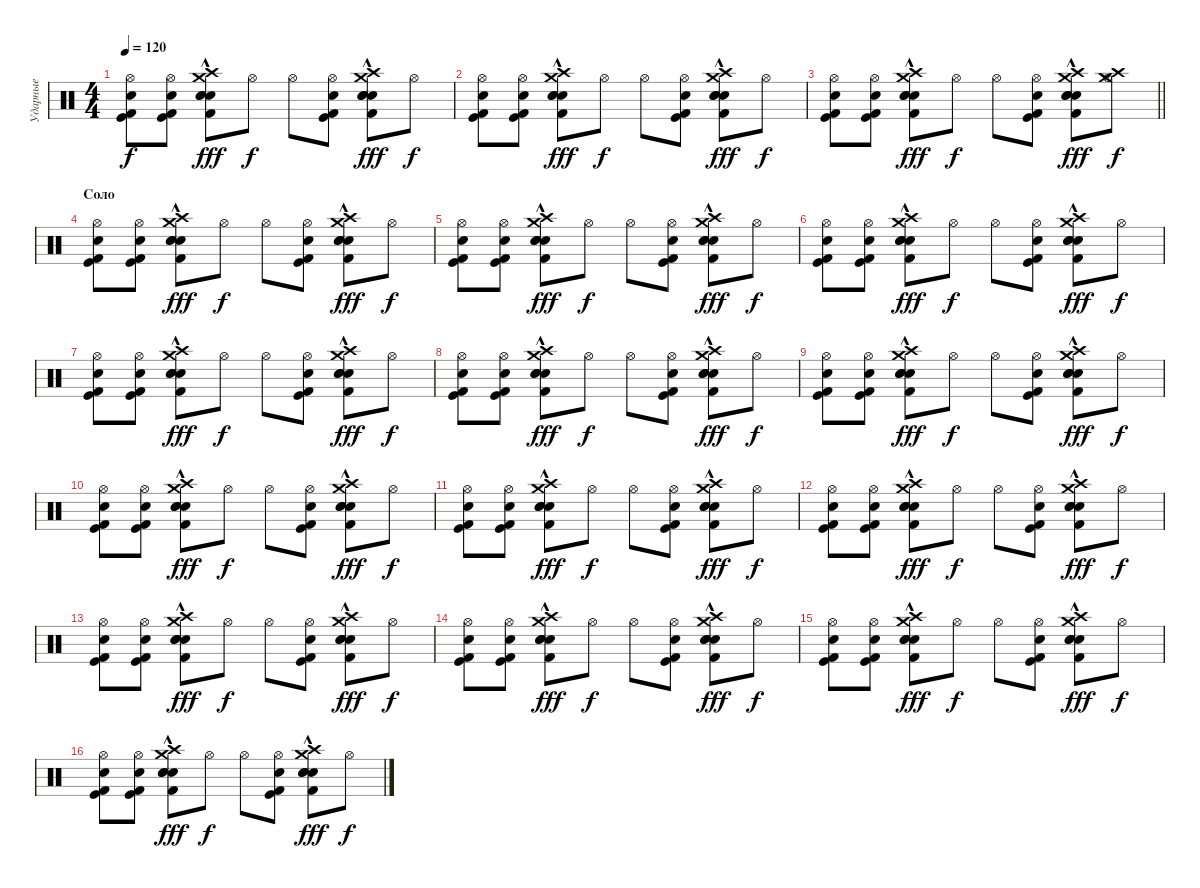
\track ("Ударные" "Ударные") {instrument percussion}
\staff {score}
\articulation defaults
\ts (4 4)
\tempo 120
\clef neutral
\ks c
("Hi-Hat (open)" "Electric Snare (hit)" "Kick (hit)" "Kick (hit) 2").8{dy f} ("Hi-Hat (open)" "Electric Snare (hit)" "Kick (hit)" "Kick (hit) 2").8 ("Snare (hit) 2" "Crash high (hit)"{hac} "Crash medium (hit)"{hac} "Snare (hit) 2"{hac} "Snare (hit) 2"{hac} "Kick (hit) 2").8{dy fff} "Hi-Hat (open)".8{dy f} "Hi-Hat (open)".8 ("Hi-Hat (open)" "Electric Snare (hit)" "Kick (hit)" "Kick (hit) 2").8 ("Snare (hit) 2" "Crash high (hit)"{hac} "Crash medium (hit)"{hac} "Snare (hit) 2"{hac} "Snare (hit) 2"{hac} "Kick (hit) 2").8{dy fff} "Hi-Hat (open)".8{dy f} |
("Hi-Hat (open)" "Electric Snare (hit)" "Kick (hit)" "Kick (hit) 2").8 ("Hi-Hat (open)" "Electric Snare (hit)" "Kick (hit)" "Kick (hit) 2").8 ("Snare (hit) 2" "Crash high (hit)"{hac} "Crash medium (hit)"{hac} "Snare (hit) 2"{hac} "Snare (hit) 2"{hac} "Kick (hit) 2").8{dy fff} "Hi-Hat (open)".8{dy f} "Hi-Hat (open)".8 ("Hi-Hat (open)" "Electric Snare (hit)" "Kick (hit)" "Kick (hit) 2").8 ("Snare (hit) 2" "Crash high (hit)"{hac} "Crash medium (hit)"{hac} "Snare (hit) 2"{hac} "Snare (hit) 2"{hac} "Kick (hit) 2").8{dy fff} "Hi-Hat (open)".8{dy f} |
\barLineRight lightlight
("Hi-Hat (open)" "Electric Snare (hit)" "Kick (hit)" "Kick (hit) 2").8 ("Hi-Hat (open)" "Electric Snare (hit)" "Kick (hit)" "Kick (hit) 2").8 ("Snare (hit) 2" "Crash high (hit)"{hac} "Crash medium (hit)"{hac} "Snare (hit) 2"{hac} "Snare (hit) 2"{hac} "Kick (hit) 2").8{dy fff} "Hi-Hat (open)".8{dy f} "Hi-Hat (open)".8 ("Hi-Hat (open)" "Electric Snare (hit)" "Kick (hit)" "Kick (hit) 2").8 ("Snare (hit) 2" "Crash high (hit)"{hac} "Crash medium (hit)"{hac} "Snare (hit) 2"{hac} "Snare (hit) 2"{hac} "Kick (hit) 2").8{dy fff} ("Hi-Hat (open)" "Crash high (hit)" "Crash medium (hit)").8{dy f} |
\section ("" "Соло")
("Hi-Hat (open)" "Electric Snare (hit)" "Kick (hit)" "Kick (hit) 2").8 ("Hi-Hat (open)" "Electric Snare (hit)" "Kick (hit)" "Kick (hit) 2").8 ("Snare (hit) 2" "Crash high (hit)"{hac} "Crash medium (hit)"{hac} "Snare (hit) 2"{hac} "Snare (hit) 2"{hac} "Kick (hit) 2").8{dy fff} "Hi-Hat (open)".8{dy f} "Hi-Hat (open)".8 ("Hi-Hat (open)" "Electric Snare (hit)" "Kick (hit)" "Kick (hit) 2").8 ("Snare (hit) 2" "Crash high (hit)"{hac} "Crash medium (hit)"{hac} "Snare (hit) 2"{hac} "Snare (hit) 2"{hac} "Kick (hit) 2").8{dy fff} "Hi-Hat (open)".8{dy f} |
("Hi-Hat (open)" "Electric Snare (hit)" "Kick (hit)" "Kick (hit) 2").8 ("Hi-Hat (open)" "Electric Snare (hit)" "Kick (hit)" "Kick (hit) 2").8 ("Snare (hit) 2" "Crash high (hit)"{hac} "Crash medium (hit)"{hac} "Snare (hit) 2"{hac} "Snare (hit) 2"{hac} "Kick (hit) 2").8{dy fff} "Hi-Hat (open)".8{dy f} "Hi-Hat (open)".8 ("Hi-Hat (open)" "Electric Snare (hit)" "Kick (hit)" "Kick (hit) 2").8 ("Snare (hit) 2" "Crash high (hit)"{hac} "Crash medium (hit)"{hac} "Snare (hit) 2"{hac} "Snare (hit) 2"{hac} "Kick (hit) 2").8{dy fff} "Hi-Hat (open)".8{dy f} |
("Hi-Hat (open)" "Electric Snare (hit)" "Kick (hit)" "Kick (hit) 2").8 ("Hi-Hat (open)" "Electric Snare (hit)" "Kick (hit)" "Kick (hit) 2").8 ("Snare (hit) 2" "Crash high (hit)"{hac} "Crash medium (hit)"{hac} "Snare (hit) 2"{hac} "Snare (hit) 2"{hac} "Kick (hit) 2").8{dy fff} "Hi-Hat (open)".8{dy f} "Hi-Hat (open)".8 ("Hi-Hat (open)" "Electric Snare (hit)" "Kick (hit)" "Kick (hit) 2").8 ("Snare (hit) 2" "Crash high (hit)"{hac} "Crash medium (hit)"{hac} "Snare (hit) 2"{hac} "Snare (hit) 2"{hac} "Kick (hit) 2").8{dy fff} "Hi-Hat (open)".8{dy f} |
("Hi-Hat (open)" "Electric Snare (hit)" "Kick (hit)" "Kick (hit) 2").8 ("Hi-Hat (open)" "Electric Snare (hit)" "Kick (hit)" "Kick (hit) 2").8 ("Snare (hit) 2" "Crash high (hit)"{hac} "Crash medium (hit)"{hac} "Snare (hit) 2"{hac} "Snare (hit) 2"{hac} "Kick (hit) 2").8{dy fff} "Hi-Hat (open)".8{dy f} "Hi-Hat (open)".8 ("Hi-Hat (open)" "Electric Snare (hit)" "Kick (hit)" "Kick (hit) 2").8 ("Snare (hit) 2" "Crash high (hit)"{hac} "Crash medium (hit)"{hac} "Snare (hit) 2"{hac} "Snare (hit) 2"{hac} "Kick (hit) 2").8{dy fff} "Hi-Hat (open)".8{dy f} |
("Hi-Hat (open)" "Electric Snare (hit)" "Kick (hit)" "Kick (hit) 2").8 ("Hi-Hat (open)" "Electric Snare (hit)" "Kick (hit)" "Kick (hit) 2").8 ("Snare (hit) 2" "Crash high (hit)"{hac} "Crash medium (hit)"{hac} "Snare (hit) 2"{hac} "Snare (hit) 2"{hac} "Kick (hit) 2").8{dy fff} "Hi-Hat (open)".8{dy f} "Hi-Hat (open)".8 ("Hi-Hat (open)" "Electric Snare (hit)" "Kick (hit)" "Kick (hit) 2").8 ("Snare (hit) 2" "Crash high (hit)"{hac} "Crash medium (hit)"{hac} "Snare (hit) 2"{hac} "Snare (hit) 2"{hac} "Kick (hit) 2").8{dy fff} "Hi-Hat (open)".8{dy f} |
("Hi-Hat (open)" "Electric Snare (hit)" "Kick (hit)" "Kick (hit) 2").8 ("Hi-Hat (open)" "Electric Snare (hit)" "Kick (hit)" "Kick (hit) 2").8 ("Snare (hit) 2" "Crash high (hit)"{hac} "Crash medium (hit)"{hac} "Snare (hit) 2"{hac} "Snare (hit) 2"{hac} "Kick (hit) 2").8{dy fff} "Hi-Hat (open)".8{dy f} "Hi-Hat (open)".8 ("Hi-Hat (open)" "Electric Snare (hit)" "Kick (hit)" "Kick (hit) 2").8 ("Snare (hit) 2" "Crash high (hit)"{hac} "Crash medium (hit)"{hac} "Snare (hit) 2"{hac} "Snare (hit) 2"{hac} "Kick (hit) 2").8{dy fff} "Hi-Hat (open)".8{dy f} |
("Hi-Hat (open)" "Electric Snare (hit)" "Kick (hit)" "Kick (hit) 2").8 ("Hi-Hat (open)" "Electric Snare (hit)" "Kick (hit)" "Kick (hit) 2").8 ("Snare (hit) 2" "Crash high (hit)"{hac} "Crash medium (hit)"{hac} "Snare (hit) 2"{hac} "Snare (hit) 2"{hac} "Kick (hit) 2").8{dy fff} "Hi-Hat (open)".8{dy f} "Hi-Hat (open)".8 ("Hi-Hat (open)" "Electric Snare (hit)" "Kick (hit)" "Kick (hit) 2").8 ("Snare (hit) 2" "Crash high (hit)"{hac} "Crash medium (hit)"{hac} "Snare (hit) 2"{hac} "Snare (hit) 2"{hac} "Kick (hit) 2").8{dy fff} "Hi-Hat (open)".8{dy f} |
("Hi-Hat (open)" "Electric Snare (hit)" "Kick (hit)" "Kick (hit) 2").8 ("Hi-Hat (open)" "Electric Snare (hit)" "Kick (hit)" "Kick (hit) 2").8 ("Snare (hit) 2" "Crash high (hit)"{hac} "Crash medium (hit)"{hac} "Snare (hit) 2"{hac} "Snare (hit) 2"{hac} "Kick (hit) 2").8{dy fff} "Hi-Hat (open)".8{dy f} "Hi-Hat (open)".8 ("Hi-Hat (open)" "Electric Snare (hit)" "Kick (hit)" "Kick (hit) 2").8 ("Snare (hit) 2" "Crash high (hit)"{hac} "Crash medium (hit)"{hac} "Snare (hit) 2"{hac} "Snare (hit) 2"{hac} "Kick (hit) 2").8{dy fff} "Hi-Hat (open)".8{dy f} |
("Hi-Hat (open)" "Electric Snare (hit)" "Kick (hit)" "Kick (hit) 2").8 ("Hi-Hat (open)" "Electric Snare (hit)" "Kick (hit)" "Kick (hit) 2").8 ("Snare (hit) 2" "Crash high (hit)"{hac} "Crash medium (hit)"{hac} "Snare (hit) 2"{hac} "Snare (hit) 2"{hac} "Kick (hit) 2").8{dy fff} "Hi-Hat (open)".8{dy f} "Hi-Hat (open)".8 ("Hi-Hat (open)" "Electric Snare (hit)" "Kick (hit)" "Kick (hit) 2").8 ("Snare (hit) 2" "Crash high (hit)"{hac} "Crash medium (hit)"{hac} "Snare (hit) 2"{hac} "Snare (hit) 2"{hac} "Kick (hit) 2").8{dy fff} "Hi-Hat (open)".8{dy f} |
("Hi-Hat (open)" "Electric Snare (hit)" "Kick (hit)" "Kick (hit) 2").8 ("Hi-Hat (open)" "Electric Snare (hit)" "Kick (hit)" "Kick (hit) 2").8 ("Snare (hit) 2" "Crash high (hit)"{hac} "Crash medium (hit)"{hac} "Snare (hit) 2"{hac} "Snare (hit) 2"{hac} "Kick (hit) 2").8{dy fff} "Hi-Hat (open)".8{dy f} "Hi-Hat (open)".8 ("Hi-Hat (open)" "Electric Snare (hit)" "Kick (hit)" "Kick (hit) 2").8 ("Snare (hit) 2" "Crash high (hit)"{hac} "Crash medium (hit)"{hac} "Snare (hit) 2"{hac} "Snare (hit) 2"{hac} "Kick (hit) 2").8{dy fff} "Hi-Hat (open)".8{dy f} |
("Hi-Hat (open)" "Electric Snare (hit)" "Kick (hit)" "Kick (hit) 2").8 ("Hi-Hat (open)" "Electric Snare (hit)" "Kick (hit)" "Kick (hit) 2").8 ("Snare (hit) 2" "Crash high (hit)"{hac} "Crash medium (hit)"{hac} "Snare (hit) 2"{hac} "Snare (hit) 2"{hac} "Kick (hit) 2").8{dy fff} "Hi-Hat (open)".8{dy f} "Hi-Hat (open)".8 ("Hi-Hat (open)" "Electric Snare (hit)" "Kick (hit)" "Kick (hit) 2").8 ("Snare (hit) 2" "Crash high (hit)"{hac} "Crash medium (hit)"{hac} "Snare (hit) 2"{hac} "Snare (hit) 2"{hac} "Kick (hit) 2").8{dy fff} "Hi-Hat (open)".8{dy f} |
("Hi-Hat (open)" "Electric Snare (hit)" "Kick (hit)" "Kick (hit) 2").8 ("Hi-Hat (open)" "Electric Snare (hit)" "Kick (hit)" "Kick (hit) 2").8 ("Snare (hit) 2" "Crash high (hit)"{hac} "Crash medium (hit)"{hac} "Snare (hit) 2"{hac} "Snare (hit) 2"{hac} "Kick (hit) 2").8{dy fff} "Hi-Hat (open)".8{dy f} "Hi-Hat (open)".8 ("Hi-Hat (open)" "Electric Snare (hit)" "Kick (hit)" "Kick (hit) 2").8 ("Snare (hit) 2" "Crash high (hit)"{hac} "Crash medium (hit)"{hac} "Snare (hit) 2"{hac} "Snare (hit) 2"{hac} "Kick (hit) 2").8{dy fff} "Hi-Hat (open)".8{dy f} |
("Hi-Hat (open)" "Electric Snare (hit)" "Kick (hit)" "Kick (hit) 2").8 ("Hi-Hat (open)" "Electric Snare (hit)" "Kick (hit)" "Kick (hit) 2").8 ("Snare (hit) 2" "Crash high (hit)"{hac} "Crash medium (hit)"{hac} "Snare (hit) 2"{hac} "Snare (hit) 2"{hac} "Kick (hit) 2").8{dy fff} "Hi-Hat (open)".8{dy f} "Hi-Hat (open)".8 ("Hi-Hat (open)" "Electric Snare (hit)" "Kick (hit)" "Kick (hit) 2").8 ("Snare (hit) 2" "Crash high (hit)"{hac} "Crash medium (hit)"{hac} "Snare (hit) 2"{hac} "Snare (hit) 2"{hac} "Kick (hit) 2").8{dy fff} "Hi-Hat (open)".8{dy f}
